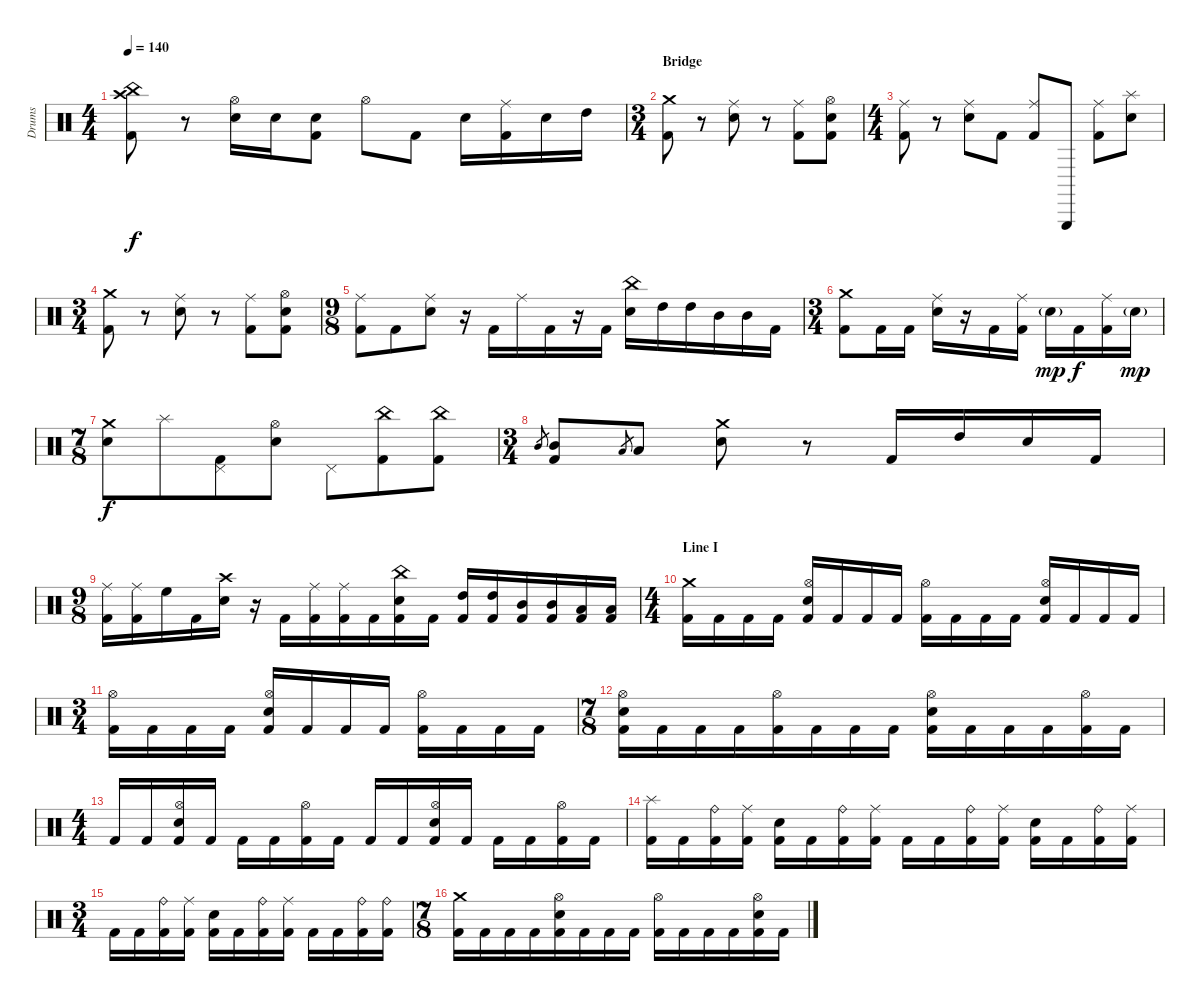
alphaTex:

\track ("Drums" "Drums") {instrument percussion}
\staff {score}
\articulation defaults
\ts (4 4)
\tempo 140
\clef neutral
\ks c
("China (hit)" "Crash high (hit)" "Kick (hit) 2").8{dy f} r.8 ("Hi-Hat (open)" "Electric Snare (hit)").16 "Electric Snare (hit)".16 ("Electric Snare (hit)" "Kick (hit) 2").8 "Hi-Hat (open)".8 "Kick (hit) 2".8 "Electric Snare (hit)".16 ("Ride (middle)" "Kick (hit) 2").16 "Electric Snare (hit)".16 "High Tom (hit)".16 |
\ts (3 4)
\section ("" "Bridge")
("Crash medium (hit)" "Kick (hit) 2").8 r.8 ("Ride (middle)" "Electric Snare (hit)").8 r.8 ("Ride (middle)" "Kick (hit) 2").8 ("Hi-Hat (open)" "Electric Snare (hit)" "Kick (hit) 2").8 |
\ts (4 4)
("Ride (middle)" "Kick (hit) 2").8 r.8 ("Ride (middle)" "Electric Snare (hit)").8 "Kick (hit) 2".8 ("Ride (middle)" "Kick (hit) 2").8 "Triangle (hit)".8 ("Ride (middle)" "Kick (hit) 2").8 ("Splash (hit)" "Electric Snare (hit)").8 |
\ts (3 4)
("Crash medium (hit)" "Kick (hit) 2").8 r.8 ("Ride (middle)" "Electric Snare (hit)").8 r.8 ("Ride (middle)" "Kick (hit) 2").8 ("Hi-Hat (open)" "Electric Snare (hit)" "Kick (hit) 2").8 |
\ts (9 8)
("Ride (middle)" "Kick (hit) 2").8 "Kick (hit) 2".8 ("Ride (middle)" "Electric Snare (hit)").8 r.16 "Kick (hit) 2".16 "Ride (middle)".16 "Kick (hit) 2".16 r.16 "Kick (hit) 2".16 ("China (hit)" "Electric Snare (hit)").16 "High Tom (hit)".16 "High Tom (hit)".16 "Mid Tom (hit)".16 "Mid Tom (hit)".16 "Kick (hit) 2".16 |
\ts (3 4)
("Crash medium (hit)" "Kick (hit) 2").8 "Kick (hit) 2".16 "Kick (hit) 2".16 ("Ride (middle)" "Electric Snare (hit)").16 r.16 "Kick (hit) 2".16 ("Ride (middle)" "Kick (hit) 2").16 "Electric Snare (hit)"{g}.16{dy mp} "Kick (hit) 2".16{dy f} ("Ride (middle)" "Kick (hit) 2").16 "Electric Snare (hit)"{g}.16{dy mp} |
\ts (7 8)
("Crash medium (hit)" "Electric Snare (hit)").8{dy f} "Splash (hit)".8 ("Pedal Hi-Hat (hit)" "Kick (hit) 2").8 ("Hi-Hat (open)" "Electric Snare (hit)").8 "Pedal Hi-Hat (hit)".8 ("China (hit)" "Kick (hit) 2").8 ("China (hit)" "Kick (hit) 2").8 |
\ts (3 4)
"Mid Tom (hit)".8{gr} ("Mid Tom (hit)" "Kick (hit) 2").8 "Low Tom (hit)".8{gr} "Low Tom (hit)".8 ("Crash medium (hit)" "Electric Snare (hit)").8 r.8 "Kick (hit) 2".16 "High Tom (hit)".16 "Electric Snare (hit)".16 "Kick (hit) 2".16 |
\ts (9 8)
("Ride (middle)" "Kick (hit) 2").16 ("Ride (middle)" "Kick (hit) 2").16 "High Floor Tom (hit)".16 "Kick (hit) 2".16 ("Crash high (hit)" "Electric Snare (hit)").16 r.16 "Kick (hit) 2".16 ("Ride (middle)" "Kick (hit) 2").16 ("Ride (middle)" "Kick (hit) 2").16 "Kick (hit) 2".16 ("China (hit)" "Electric Snare (hit)" "Kick (hit) 2").16 "Kick (hit) 2".16 ("High Tom (hit)" "Kick (hit) 2").16 ("High Tom (hit)" "Kick (hit) 2").16 ("Mid Tom (hit)" "Kick (hit) 2").16 ("Mid Tom (hit)" "Kick (hit) 2").16 ("Low Tom (hit)" "Kick (hit) 2").16 ("Low Tom (hit)" "Kick (hit) 2").16 |
\ts (4 4)
\section ("" "Line I")
("Crash medium (hit)" "Kick (hit) 2").16 "Kick (hit) 2".16 "Kick (hit) 2".16 "Kick (hit) 2".16 ("Hi-Hat (open)" "Electric Snare (hit)" "Kick (hit) 2").16 "Kick (hit) 2".16 "Kick (hit) 2".16 "Kick (hit) 2".16 ("Hi-Hat (open)" "Kick (hit) 2").16 "Kick (hit) 2".16 "Kick (hit) 2".16 "Kick (hit) 2".16 ("Hi-Hat (open)" "Electric Snare (hit)" "Kick (hit) 2").16 "Kick (hit) 2".16 "Kick (hit) 2".16 "Kick (hit) 2".16 |
\ts (3 4)
("Hi-Hat (open)" "Kick (hit) 2").16 "Kick (hit) 2".16 "Kick (hit) 2".16 "Kick (hit) 2".16 ("Hi-Hat (open)" "Electric Snare (hit)" "Kick (hit) 2").16 "Kick (hit) 2".16 "Kick (hit) 2".16 "Kick (hit) 2".16 ("Hi-Hat (open)" "Kick (hit) 2").16 "Kick (hit) 2".16 "Kick (hit) 2".16 "Kick (hit) 2".16 |
\ts (7 8)
("Hi-Hat (open)" "Electric Snare (hit)" "Kick (hit) 2").16 "Kick (hit) 2".16 "Kick (hit) 2".16 "Kick (hit) 2".16 ("Hi-Hat (open)" "Kick (hit) 2").16 "Kick (hit) 2".16 "Kick (hit) 2".16 "Kick (hit) 2".16 ("Hi-Hat (open)" "Electric Snare (hit)" "Kick (hit) 2").16 "Kick (hit) 2".16 "Kick (hit) 2".16 "Kick (hit) 2".16 ("Hi-Hat (open)" "Kick (hit) 2").16 "Kick (hit) 2".16 |
\ts (4 4)
"Kick (hit) 2".16 "Kick (hit) 2".16 ("Hi-Hat (open)" "Electric Snare (hit)" "Kick (hit) 2").16 "Kick (hit) 2".16 "Kick (hit) 2".16 "Kick (hit) 2".16 ("Hi-Hat (open)" "Kick (hit) 2").16 "Kick (hit) 2".16 "Kick (hit) 2".16 "Kick (hit) 2".16 ("Hi-Hat (open)" "Electric Snare (hit)" "Kick (hit) 2").16 "Kick (hit) 2".16 "Kick (hit) 2".16 "Kick (hit) 2".16 ("Hi-Hat (open)" "Kick (hit) 2").16 "Kick (hit) 2".16 |
("Splash (hit)" "Kick (hit) 2").16 "Kick (hit) 2".16 ("Ride (bell)" "Kick (hit) 2").16 ("Ride (middle)" "Kick (hit) 2").16 ("Electric Snare (hit)" "Kick (hit) 2").16 "Kick (hit) 2".16 ("Ride (bell)" "Kick (hit) 2").16 ("Ride (middle)" "Kick (hit) 2").16 "Kick (hit) 2".16 "Kick (hit) 2".16 ("Ride (bell)" "Kick (hit) 2").16 ("Ride (middle)" "Kick (hit) 2").16 ("Electric Snare (hit)" "Kick (hit) 2").16 "Kick (hit) 2".16 ("Ride (bell)" "Kick (hit) 2").16 ("Ride (middle)" "Kick (hit) 2").16 |
\ts (3 4)
"Kick (hit) 2".16 "Kick (hit) 2".16 ("Ride (bell)" "Kick (hit) 2").16 ("Ride (middle)" "Kick (hit) 2").16 ("Electric Snare (hit)" "Kick (hit) 2").16 "Kick (hit) 2".16 ("Ride (bell)" "Kick (hit) 2").16 ("Ride (middle)" "Kick (hit) 2").16 "Kick (hit) 2".16 "Kick (hit) 2".16 ("Ride (bell)" "Kick (hit) 2").16 ("Ride (bell)" "Kick (hit) 2").16 |
\ts (7 8)
("Crash medium (hit)" "Kick (hit) 2").16 "Kick (hit) 2".16 "Kick (hit) 2".16 "Kick (hit) 2".16 ("Hi-Hat (open)" "Electric Snare (hit)" "Kick (hit) 2").16 "Kick (hit) 2".16 "Kick (hit) 2".16 "Kick (hit) 2".16 ("Hi-Hat (open)" "Kick (hit) 2").16 "Kick (hit) 2".16 "Kick (hit) 2".16 "Kick (hit) 2".16 ("Hi-Hat (open)" "Electric Snare (hit)" "Kick (hit) 2").16 "Kick (hit) 2".16
